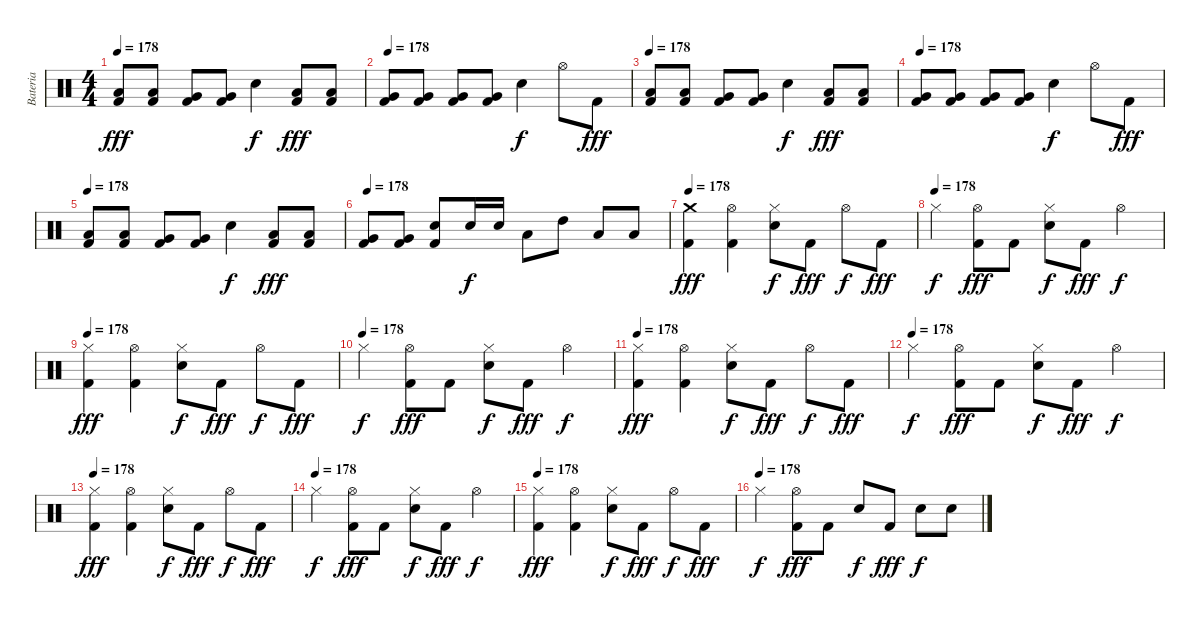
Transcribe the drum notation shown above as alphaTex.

\track ("Bateria" "Bateria") {instrument percussion}
\staff {score}
\articulation defaults
\ts (4 4)
\tempo 178
\clef neutral
\ks c
("Low Tom (hit)" "Kick (hit) 2").8{dy fff} ("Low Tom (hit)" "Kick (hit) 2").8 ("Very Low Tom (hit)" "Kick (hit) 2").8 ("Very Low Tom (hit)" "Kick (hit) 2").8 "Electric Snare (hit)".4{dy f} ("Low Tom (hit)" "Kick (hit) 2").8{dy fff} ("Low Tom (hit)" "Kick (hit) 2").8 |
\tempo 178
("Very Low Tom (hit)" "Kick (hit) 2").8 ("Very Low Tom (hit)" "Kick (hit) 2").8 ("Very Low Tom (hit)" "Kick (hit) 2").8 ("Very Low Tom (hit)" "Kick (hit) 2").8 "Electric Snare (hit)".4{dy f} "Hi-Hat (open)".8 "Kick (hit) 2".8{dy fff} |
\tempo 178
("Low Tom (hit)" "Kick (hit) 2").8 ("Low Tom (hit)" "Kick (hit) 2").8 ("Very Low Tom (hit)" "Kick (hit) 2").8 ("Very Low Tom (hit)" "Kick (hit) 2").8 "Electric Snare (hit)".4{dy f} ("Low Tom (hit)" "Kick (hit) 2").8{dy fff} ("Low Tom (hit)" "Kick (hit) 2").8 |
\tempo 178
("Very Low Tom (hit)" "Kick (hit) 2").8 ("Very Low Tom (hit)" "Kick (hit) 2").8 ("Very Low Tom (hit)" "Kick (hit) 2").8 ("Very Low Tom (hit)" "Kick (hit) 2").8 "Electric Snare (hit)".4{dy f} "Hi-Hat (open)".8 "Kick (hit) 2".8{dy fff} |
\tempo 178
("Low Tom (hit)" "Kick (hit) 2").8 ("Low Tom (hit)" "Kick (hit) 2").8 ("Very Low Tom (hit)" "Kick (hit) 2").8 ("Very Low Tom (hit)" "Kick (hit) 2").8 "Electric Snare (hit)".4{dy f} ("Low Tom (hit)" "Kick (hit) 2").8{dy fff} ("Low Tom (hit)" "Kick (hit) 2").8 |
\tempo 178
("Very Low Tom (hit)" "Kick (hit) 2").8 ("Very Low Tom (hit)" "Kick (hit) 2").8 ("Electric Snare (hit)" "Kick (hit) 2").8 "Electric Snare (hit)".16{dy f} "Electric Snare (hit)".16 "Low Tom (hit)".8 "High Tom (hit)".8 "Low Tom (hit)".8 "Low Tom (hit)".8 |
\tempo 178
("Crash medium (hit)" "Kick (hit) 2").4{dy fff} ("Hi-Hat (open)" "Kick (hit) 2").4 ("Hi-Hat (closed)" "Electric Snare (hit)").8{dy f} "Kick (hit) 2".8{dy fff} "Hi-Hat (open)".8{dy f} "Kick (hit) 2".8{dy fff} |
\tempo (178)
"Hi-Hat (closed)".4{dy f} ("Hi-Hat (open)" "Kick (hit) 2").8{dy fff} "Kick (hit) 2".8 ("Hi-Hat (closed)" "Electric Snare (hit)").8{dy f} "Kick (hit) 2".8{dy fff} "Hi-Hat (open)".4{dy f} |
\tempo 178
("Hi-Hat (closed)" "Kick (hit) 2").4{dy fff} ("Hi-Hat (open)" "Kick (hit) 2").4 ("Hi-Hat (closed)" "Electric Snare (hit)").8{dy f} "Kick (hit) 2".8{dy fff} "Hi-Hat (open)".8{dy f} "Kick (hit) 2".8{dy fff} |
\tempo (178)
"Hi-Hat (closed)".4{dy f} ("Hi-Hat (open)" "Kick (hit) 2").8{dy fff} "Kick (hit) 2".8 ("Hi-Hat (closed)" "Electric Snare (hit)").8{dy f} "Kick (hit) 2".8{dy fff} "Hi-Hat (open)".4{dy f} |
\tempo 178
("Hi-Hat (closed)" "Kick (hit) 2").4{dy fff} ("Hi-Hat (open)" "Kick (hit) 2").4 ("Hi-Hat (closed)" "Electric Snare (hit)").8{dy f} "Kick (hit) 2".8{dy fff} "Hi-Hat (open)".8{dy f} "Kick (hit) 2".8{dy fff} |
\tempo (178)
"Hi-Hat (closed)".4{dy f} ("Hi-Hat (open)" "Kick (hit) 2").8{dy fff} "Kick (hit) 2".8 ("Hi-Hat (closed)" "Electric Snare (hit)").8{dy f} "Kick (hit) 2".8{dy fff} "Hi-Hat (open)".4{dy f} |
\tempo 178
("Hi-Hat (closed)" "Kick (hit) 2").4{dy fff} ("Hi-Hat (open)" "Kick (hit) 2").4 ("Hi-Hat (closed)" "Electric Snare (hit)").8{dy f} "Kick (hit) 2".8{dy fff} "Hi-Hat (open)".8{dy f} "Kick (hit) 2".8{dy fff} |
\tempo (178)
"Hi-Hat (closed)".4{dy f} ("Hi-Hat (open)" "Kick (hit) 2").8{dy fff} "Kick (hit) 2".8 ("Hi-Hat (closed)" "Electric Snare (hit)").8{dy f} "Kick (hit) 2".8{dy fff} "Hi-Hat (open)".4{dy f} |
\tempo 178
("Hi-Hat (closed)" "Kick (hit) 2").4{dy fff} ("Hi-Hat (open)" "Kick (hit) 2").4 ("Hi-Hat (closed)" "Electric Snare (hit)").8{dy f} "Kick (hit) 2".8{dy fff} "Hi-Hat (open)".8{dy f} "Kick (hit) 2".8{dy fff} |
\tempo (178)
"Hi-Hat (closed)".4{dy f} ("Hi-Hat (open)" "Kick (hit) 2").8{dy fff} "Kick (hit) 2".8 "Electric Snare (hit)".8{dy f} "Kick (hit) 2".8{dy fff} "Electric Snare (hit)".8{dy f} "Electric Snare (hit)".8
